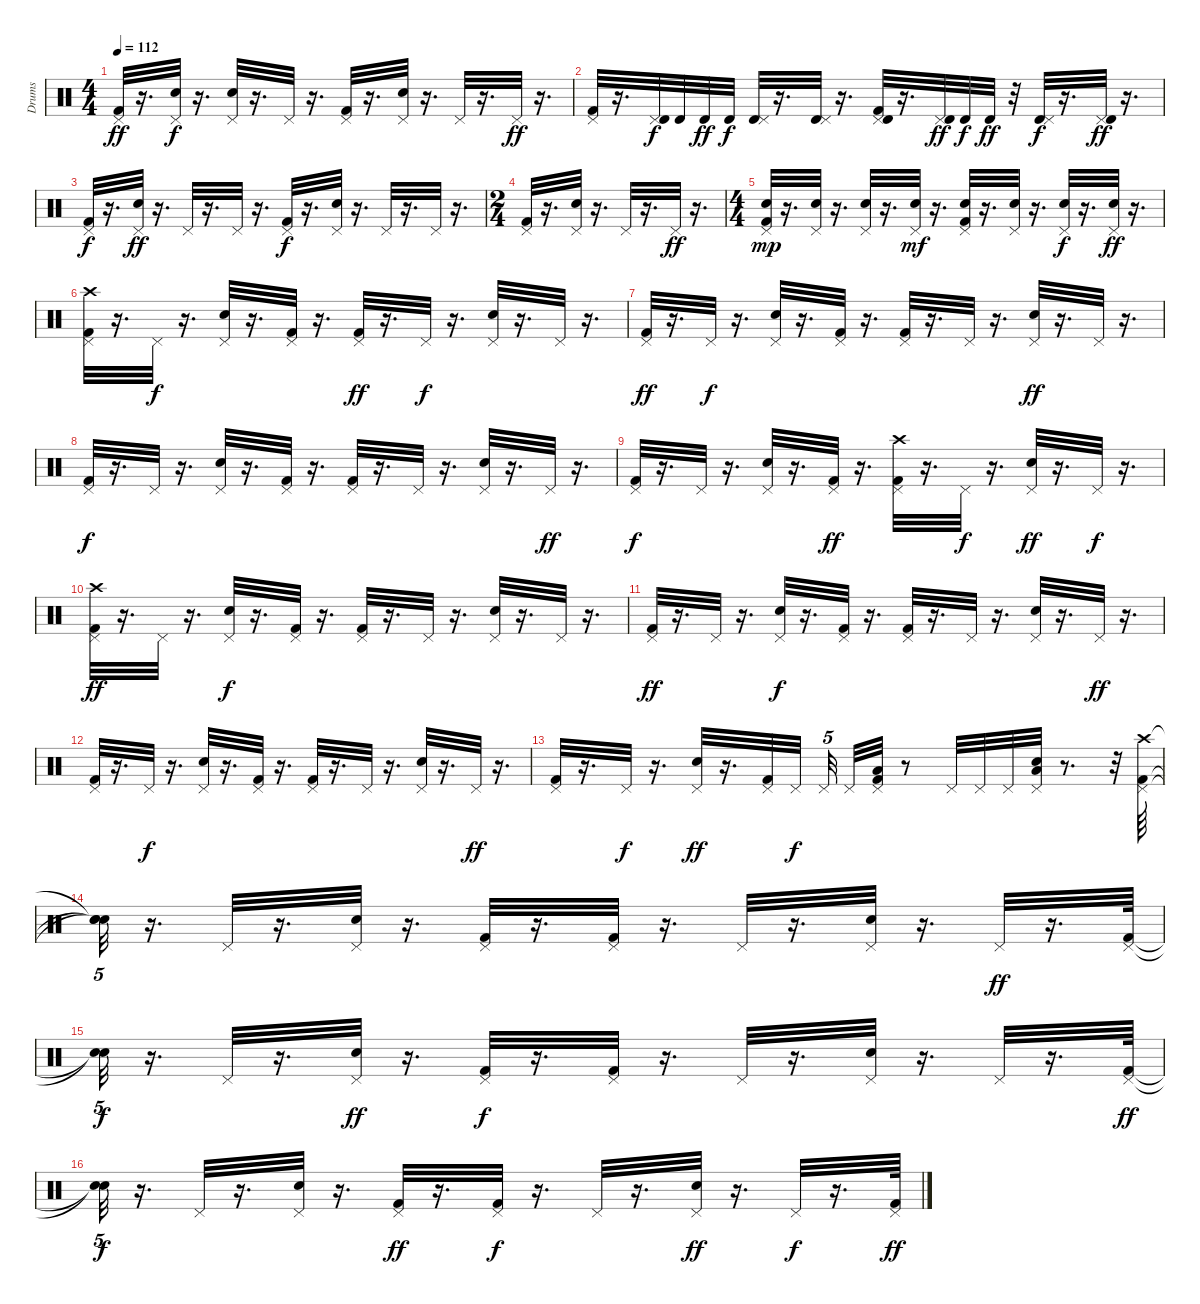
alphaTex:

\track ("Drums" "Drums") {instrument percussion}
\staff {score}
\articulation defaults
\ts (4 4)
\tempo 112
\clef neutral
\ks c
("Pedal Hi-Hat (hit)" "Kick (hit) 2").32{dy ff} r.16{d} ("Snare (hit) 2" "Pedal Hi-Hat (hit)").32{dy f} r.16{d} ("Snare (hit) 2" "Pedal Hi-Hat (hit)").32 r.16{d} "Pedal Hi-Hat (hit)".32 r.16{d} ("Kick (hit) 2" "Pedal Hi-Hat (hit)").32 r.16{d} ("Pedal Hi-Hat (hit)" "Snare (hit) 2").32 r.16{d} "Pedal Hi-Hat (hit)".32 r.16{d} "Pedal Hi-Hat (hit)".32{dy ff} r.16{d} |
("Pedal Hi-Hat (hit)" "Kick (hit) 2").32 r.16{d} ("Pedal Hi-Hat (hit)" "Timbale high (hit)").32{dy f} "Timbale high (hit)".32 "Timbale high (hit)".32{dy ff} "Timbale high (hit)".32{dy f} ("Timbale high (hit)" "Pedal Hi-Hat (hit)").32 r.16{d} ("Timbale high (hit)" "Pedal Hi-Hat (hit)").32 r.16{d} ("Pedal Hi-Hat (hit)" "Timbale high (hit)" "Kick (hit) 2").32 r.16{d} ("Pedal Hi-Hat (hit)" "Timbale high (hit)").32{dy ff} "Timbale high (hit)".32{dy f} "Timbale high (hit)".32{dy ff} r.32 ("Timbale high (hit)" "Pedal Hi-Hat (hit)").32{dy f} r.16{d} ("Pedal Hi-Hat (hit)" "Timbale high (hit)").32{dy ff} r.16{d} |
("Kick (hit) 2" "Pedal Hi-Hat (hit)").32{dy f} r.16{d} ("Snare (hit) 2" "Pedal Hi-Hat (hit)").32{dy ff} r.16{d} "Pedal Hi-Hat (hit)".32 r.16{d} "Pedal Hi-Hat (hit)".32 r.16{d} ("Pedal Hi-Hat (hit)" "Kick (hit) 2").32{dy f} r.16{d} ("Snare (hit) 2" "Pedal Hi-Hat (hit)").32 r.16{d} "Pedal Hi-Hat (hit)".32 r.16{d} "Pedal Hi-Hat (hit)".32 r.16{d} |
\ts (2 4)
("Pedal Hi-Hat (hit)" "Kick (hit) 2").32 r.16{d} ("Pedal Hi-Hat (hit)" "Snare (hit) 2").32 r.16{d} "Pedal Hi-Hat (hit)".32 r.16{d} "Pedal Hi-Hat (hit)".32{dy ff} r.16{d} |
\ts (4 4)
("Pedal Hi-Hat (hit)" "Kick (hit) 2" "Snare (hit) 2").32{dy mp} r.16{d} ("Pedal Hi-Hat (hit)" "Snare (hit) 2").32 r.16{d} ("Pedal Hi-Hat (hit)" "Snare (hit) 2").32 r.16{d} ("Pedal Hi-Hat (hit)" "Snare (hit) 2").32{dy mf} r.16{d} ("Pedal Hi-Hat (hit)" "Snare (hit) 2" "Kick (hit) 2").32 r.16{d} ("Pedal Hi-Hat (hit)" "Snare (hit) 2").32 r.16{d} ("Pedal Hi-Hat (hit)" "Snare (hit) 2").32{dy f} r.16{d} ("Snare (hit) 2" "Pedal Hi-Hat (hit)").32{dy ff} r.16{d} |
("Crash high (hit)" "Kick (hit) 2" "Pedal Hi-Hat (hit)").32 r.16{d} "Pedal Hi-Hat (hit)".32{dy f} r.16{d} ("Pedal Hi-Hat (hit)" "Snare (hit) 2").32 r.16{d} ("Kick (hit) 2" "Pedal Hi-Hat (hit)").32 r.16{d} ("Pedal Hi-Hat (hit)" "Kick (hit) 2").32{dy ff} r.16{d} "Pedal Hi-Hat (hit)".32{dy f} r.16{d} ("Snare (hit) 2" "Pedal Hi-Hat (hit)").32 r.16{d} "Pedal Hi-Hat (hit)".32 r.16{d} |
("Pedal Hi-Hat (hit)" "Kick (hit) 2").32{dy ff} r.16{d} "Pedal Hi-Hat (hit)".32{dy f} r.16{d} ("Pedal Hi-Hat (hit)" "Snare (hit) 2").32 r.16{d} ("Pedal Hi-Hat (hit)" "Kick (hit) 2").32 r.16{d} ("Pedal Hi-Hat (hit)" "Kick (hit) 2").32 r.16{d} "Pedal Hi-Hat (hit)".32 r.16{d} ("Snare (hit) 2" "Pedal Hi-Hat (hit)").32{dy ff} r.16{d} "Pedal Hi-Hat (hit)".32 r.16{d} |
("Kick (hit) 2" "Pedal Hi-Hat (hit)").32{dy f} r.16{d} "Pedal Hi-Hat (hit)".32 r.16{d} ("Pedal Hi-Hat (hit)" "Snare (hit) 2").32 r.16{d} ("Kick (hit) 2" "Pedal Hi-Hat (hit)").32 r.16{d} ("Pedal Hi-Hat (hit)" "Kick (hit) 2").32 r.16{d} "Pedal Hi-Hat (hit)".32 r.16{d} ("Pedal Hi-Hat (hit)" "Snare (hit) 2").32 r.16{d} "Pedal Hi-Hat (hit)".32{dy ff} r.16{d} |
("Kick (hit) 2" "Pedal Hi-Hat (hit)").32{dy f} r.16{d} "Pedal Hi-Hat (hit)".32 r.16{d} ("Pedal Hi-Hat (hit)" "Snare (hit) 2").32 r.16{d} ("Kick (hit) 2" "Pedal Hi-Hat (hit)").32{dy ff} r.16{d} ("Pedal Hi-Hat (hit)" "Crash high (hit)" "Kick (hit) 2").32 r.16{d} "Pedal Hi-Hat (hit)".32{dy f} r.16{d} ("Pedal Hi-Hat (hit)" "Snare (hit) 2").32{dy ff} r.16{d} "Pedal Hi-Hat (hit)".32{dy f} r.16{d} |
("Crash high (hit)" "Kick (hit) 2" "Pedal Hi-Hat (hit)").32{dy ff} r.16{d} "Pedal Hi-Hat (hit)".32 r.16{d} ("Snare (hit) 2" "Pedal Hi-Hat (hit)").32{dy f} r.16{d} ("Pedal Hi-Hat (hit)" "Kick (hit) 2").32 r.16{d} ("Kick (hit) 2" "Pedal Hi-Hat (hit)").32 r.16{d} "Pedal Hi-Hat (hit)".32 r.16{d} ("Pedal Hi-Hat (hit)" "Snare (hit) 2").32 r.16{d} "Pedal Hi-Hat (hit)".32 r.16{d} |
("Kick (hit) 2" "Pedal Hi-Hat (hit)").32{dy ff} r.16{d} "Pedal Hi-Hat (hit)".32 r.16{d} ("Snare (hit) 2" "Pedal Hi-Hat (hit)").32{dy f} r.16{d} ("Kick (hit) 2" "Pedal Hi-Hat (hit)").32 r.16{d} ("Kick (hit) 2" "Pedal Hi-Hat (hit)").32 r.16{d} "Pedal Hi-Hat (hit)".32 r.16{d} ("Snare (hit) 2" "Pedal Hi-Hat (hit)").32 r.16{d} "Pedal Hi-Hat (hit)".32{dy ff} r.16{d} |
("Pedal Hi-Hat (hit)" "Kick (hit) 2").32 r.16{d} "Pedal Hi-Hat (hit)".32{dy f} r.16{d} ("Pedal Hi-Hat (hit)" "Snare (hit) 2").32 r.16{d} ("Pedal Hi-Hat (hit)" "Kick (hit) 2").32 r.16{d} ("Pedal Hi-Hat (hit)" "Kick (hit) 2").32 r.16{d} "Pedal Hi-Hat (hit)".32 r.16{d} ("Pedal Hi-Hat (hit)" "Snare (hit) 2").32 r.16{d} "Pedal Hi-Hat (hit)".32{dy ff} r.16{d} |
("Kick (hit) 2" "Pedal Hi-Hat (hit)").32 r.16{d} "Pedal Hi-Hat (hit)".32{dy f} r.16{d} ("Snare (hit) 2" "Pedal Hi-Hat (hit)").32{dy ff} r.16{d} ("Pedal Hi-Hat (hit)" "Kick (hit) 2").32 "Pedal Hi-Hat (hit)".32{dy f} "Pedal Hi-Hat (hit)".32{tu (5 4)} "Pedal Hi-Hat (hit)".32 ("Pedal Hi-Hat (hit)" "Kick (hit) 2" "Low Floor Tom (hit)").32 r.8 "Pedal Hi-Hat (hit)".32 "Pedal Hi-Hat (hit)".32 "Pedal Hi-Hat (hit)".32 ("Snare (hit) 2" "Pedal Hi-Hat (hit)" "Low Floor Tom (hit)").32 r.8{d} r.32 ("Crash high (hit)" "Kick (hit) 2" "Pedal Hi-Hat (hit)").64 |
("Snare (hit)"{t} "Snare (hit)"{t} "Snare (hit)"{t}).32{tu (5 4)} r.16{d} "Pedal Hi-Hat (hit)".32 r.16{d} ("Pedal Hi-Hat (hit)" "Snare (hit) 2").32 r.16{d} ("Kick (hit) 2" "Pedal Hi-Hat (hit)").32 r.16{d} ("Kick (hit) 2" "Pedal Hi-Hat (hit)").32 r.16{d} "Pedal Hi-Hat (hit)".32 r.16{d} ("Pedal Hi-Hat (hit)" "Snare (hit) 2").32 r.16{d} "Pedal Hi-Hat (hit)".32{dy ff} r.16{d} ("Kick (hit) 2" "Pedal Hi-Hat (hit)").64 |
("Snare (hit)"{t} "Snare (hit)"{t}).32{tu (5 4) dy f} r.16{d} "Pedal Hi-Hat (hit)".32 r.16{d} ("Snare (hit) 2" "Pedal Hi-Hat (hit)").32{dy ff} r.16{d} ("Pedal Hi-Hat (hit)" "Kick (hit) 2").32{dy f} r.16{d} ("Kick (hit) 2" "Pedal Hi-Hat (hit)").32 r.16{d} "Pedal Hi-Hat (hit)".32 r.16{d} ("Snare (hit) 2" "Pedal Hi-Hat (hit)").32 r.16{d} "Pedal Hi-Hat (hit)".32 r.16{d} ("Kick (hit) 2" "Pedal Hi-Hat (hit)").64{dy ff} |
("Snare (hit)"{t} "Snare (hit)"{t}).32{tu (5 4) dy f} r.16{d} "Pedal Hi-Hat (hit)".32 r.16{d} ("Pedal Hi-Hat (hit)" "Snare (hit) 2").32 r.16{d} ("Pedal Hi-Hat (hit)" "Kick (hit) 2").32{dy ff} r.16{d} ("Pedal Hi-Hat (hit)" "Kick (hit) 2").32{dy f} r.16{d} "Pedal Hi-Hat (hit)".32 r.16{d} ("Pedal Hi-Hat (hit)" "Snare (hit) 2").32{dy ff} r.16{d} "Pedal Hi-Hat (hit)".32{dy f} r.16{d} ("Pedal Hi-Hat (hit)" "Kick (hit) 2").64{dy ff}
